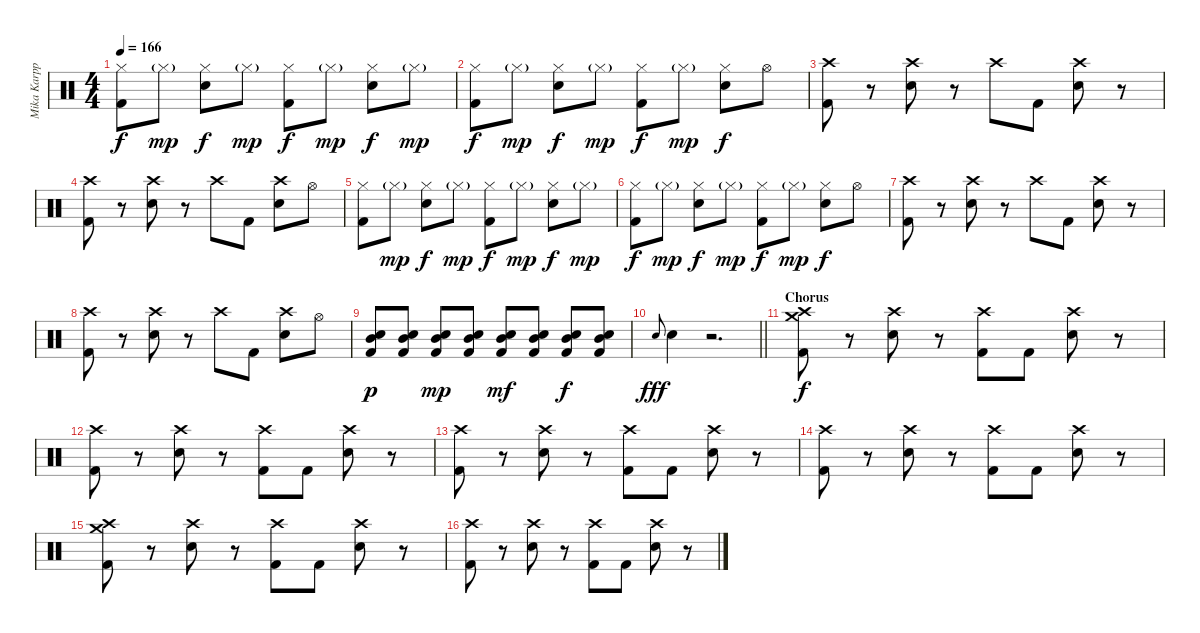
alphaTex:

\track ("Mika Karppinen" "Mika Karpp") {instrument percussion}
\staff {score}
\articulation defaults
\ts (4 4)
\tempo 166
\clef neutral
\ks c
("Hi-Hat (closed)" "Kick (hit) 2").8{dy f} "Hi-Hat (closed)"{g}.8{dy mp} ("Hi-Hat (closed)" "Snare (hit) 2").8{dy f} "Hi-Hat (closed)"{g}.8{dy mp} ("Hi-Hat (closed)" "Kick (hit) 2").8{dy f} "Hi-Hat (closed)"{g}.8{dy mp} ("Hi-Hat (closed)" "Snare (hit) 2").8{dy f} "Hi-Hat (closed)"{g}.8{dy mp} |
("Hi-Hat (closed)" "Kick (hit) 2").8{dy f} "Hi-Hat (closed)"{g}.8{dy mp} ("Hi-Hat (closed)" "Snare (hit) 2").8{dy f} "Hi-Hat (closed)"{g}.8{dy mp} ("Hi-Hat (closed)" "Kick (hit) 2").8{dy f} "Hi-Hat (closed)"{g}.8{dy mp} ("Hi-Hat (closed)" "Snare (hit) 2").8{dy f} "Hi-Hat (open)".8 |
("Crash high (hit)" "Kick (hit) 2").8 r.8 ("Crash high (hit)" "Snare (hit) 2").8 r.8 "Crash high (hit)".8 "Kick (hit) 2".8 ("Crash high (hit)" "Snare (hit) 2").8 r.8 |
("Crash high (hit)" "Kick (hit) 2").8 r.8 ("Crash high (hit)" "Snare (hit) 2").8 r.8 "Crash high (hit)".8 "Kick (hit) 2".8 ("Crash high (hit)" "Snare (hit) 2").8 "Hi-Hat (open)".8 |
("Hi-Hat (closed)" "Kick (hit) 2").8 "Hi-Hat (closed)"{g}.8{dy mp} ("Hi-Hat (closed)" "Snare (hit) 2").8{dy f} "Hi-Hat (closed)"{g}.8{dy mp} ("Hi-Hat (closed)" "Kick (hit) 2").8{dy f} "Hi-Hat (closed)"{g}.8{dy mp} ("Hi-Hat (closed)" "Snare (hit) 2").8{dy f} "Hi-Hat (closed)"{g}.8{dy mp} |
("Hi-Hat (closed)" "Kick (hit) 2").8{dy f} "Hi-Hat (closed)"{g}.8{dy mp} ("Hi-Hat (closed)" "Snare (hit) 2").8{dy f} "Hi-Hat (closed)"{g}.8{dy mp} ("Hi-Hat (closed)" "Kick (hit) 2").8{dy f} "Hi-Hat (closed)"{g}.8{dy mp} ("Hi-Hat (closed)" "Snare (hit) 2").8{dy f} "Hi-Hat (open)".8 |
("Crash high (hit)" "Kick (hit) 2").8 r.8 ("Crash high (hit)" "Snare (hit) 2").8 r.8 "Crash high (hit)".8 "Kick (hit) 2".8 ("Crash high (hit)" "Snare (hit) 2").8 r.8 |
("Crash high (hit)" "Kick (hit) 2").8 r.8 ("Crash high (hit)" "Snare (hit) 2").8 r.8 "Crash high (hit)".8 "Kick (hit) 2".8 ("Crash high (hit)" "Snare (hit) 2").8 "Hi-Hat (open)".8 |
("Mid Tom (hit)" "Snare (hit) 2" "Kick (hit) 2").8{dy p} ("Mid Tom (hit)" "Snare (hit) 2" "Kick (hit) 2").8 ("Mid Tom (hit)" "Snare (hit) 2" "Kick (hit) 2").8{dy mp} ("Mid Tom (hit)" "Snare (hit) 2" "Kick (hit) 2").8 ("Mid Tom (hit)" "Snare (hit) 2" "Kick (hit) 2").8{dy mf} ("Mid Tom (hit)" "Snare (hit) 2" "Kick (hit) 2").8 ("Mid Tom (hit)" "Snare (hit) 2" "Kick (hit) 2").8{dy f} ("Mid Tom (hit)" "Snare (hit) 2" "Kick (hit) 2").8 |
\barLineRight lightlight "Snare (hit) 2".8{gr onbeat dy fff} "Snare (hit) 2".4
r.2{d} |
\section ("" "Chorus")
("Crash medium (hit)" "Crash high (hit)" "Kick (hit) 2").8{dy f} r.8 ("Crash high (hit)" "Snare (hit) 2").8 r.8 ("Crash high (hit)" "Kick (hit) 2").8 "Kick (hit) 2".8 ("Crash high (hit)" "Snare (hit) 2").8 r.8 |
("Crash high (hit)" "Kick (hit) 2").8 r.8 ("Crash high (hit)" "Snare (hit) 2").8 r.8 ("Crash high (hit)" "Kick (hit) 2").8 "Kick (hit) 2".8 ("Crash high (hit)" "Snare (hit) 2").8 r.8 |
("Crash high (hit)" "Kick (hit) 2").8 r.8 ("Crash high (hit)" "Snare (hit) 2").8 r.8 ("Crash high (hit)" "Kick (hit) 2").8 "Kick (hit) 2".8 ("Crash high (hit)" "Snare (hit) 2").8 r.8 |
("Crash high (hit)" "Kick (hit) 2").8 r.8 ("Crash high (hit)" "Snare (hit) 2").8 r.8 ("Crash high (hit)" "Kick (hit) 2").8 "Kick (hit) 2".8 ("Crash high (hit)" "Snare (hit) 2").8 r.8 |
("Crash medium (hit)" "Crash high (hit)" "Kick (hit) 2").8 r.8 ("Crash high (hit)" "Snare (hit) 2").8 r.8 ("Crash high (hit)" "Kick (hit) 2").8 "Kick (hit) 2".8 ("Crash high (hit)" "Snare (hit) 2").8 r.8 |
("Crash high (hit)" "Kick (hit) 2").8 r.8 ("Crash high (hit)" "Snare (hit) 2").8 r.8 ("Crash high (hit)" "Kick (hit) 2").8 "Kick (hit) 2".8 ("Crash high (hit)" "Snare (hit) 2").8 r.8
